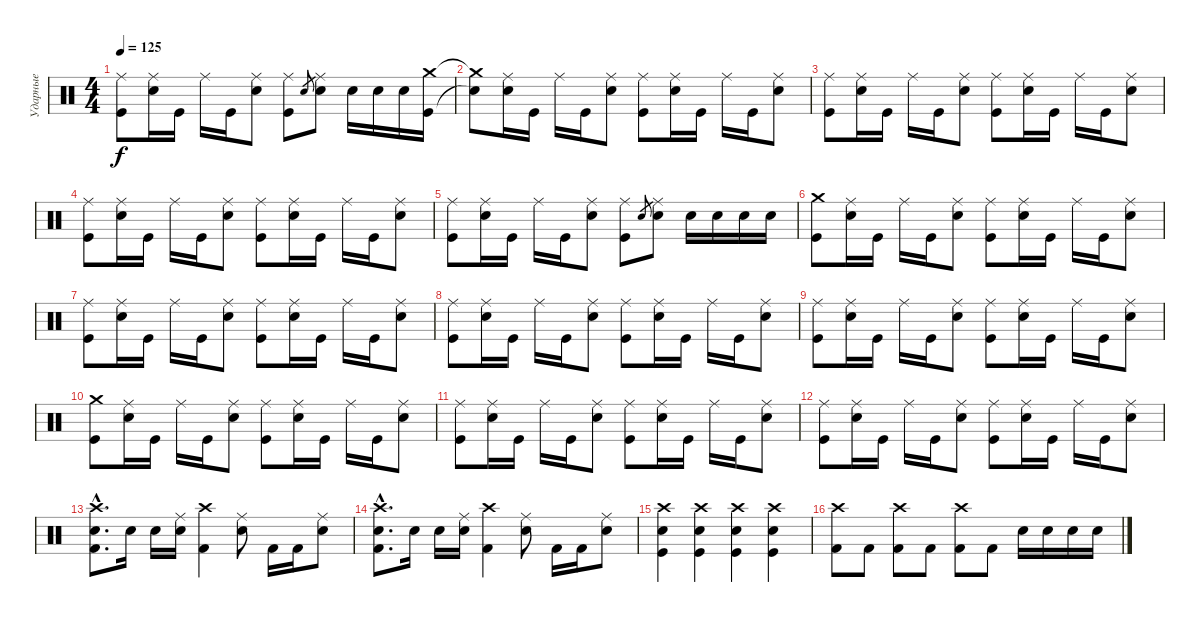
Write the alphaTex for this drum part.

\track ("Ударные" "Ударные") {instrument percussion}
\staff {score}
\articulation defaults
\ts (4 4)
\tempo 125
\clef neutral
\ks c
("Ride (middle)" "Kick (hit)").8{dy f} ("Ride (middle)" "Electric Snare (hit)").16 "Kick (hit)".16 "Ride (middle)".16 "Kick (hit)".16 ("Ride (middle)" "Electric Snare (hit)").8 ("Ride (middle)" "Kick (hit)").8 "Electric Snare (hit)".8{gr} ("Ride (middle)" "Electric Snare (hit)").8 "Electric Snare (hit)".16 "Electric Snare (hit)".16 "Electric Snare (hit)".16 ("Crash medium (hit)" "Kick (hit)").16 |
("Crash medium (hit)"{t} "Snare (hit)"{t}).8 ("Ride (middle)" "Electric Snare (hit)").16 "Kick (hit)".16 "Ride (middle)".16 "Kick (hit)".16 ("Ride (middle)" "Electric Snare (hit)").8 ("Ride (middle)" "Kick (hit)").8 ("Ride (middle)" "Electric Snare (hit)").16 "Kick (hit)".16 "Ride (middle)".16 "Kick (hit)".16 ("Ride (middle)" "Electric Snare (hit)").8 |
("Ride (middle)" "Kick (hit)").8 ("Ride (middle)" "Electric Snare (hit)").16 "Kick (hit)".16 "Ride (middle)".16 "Kick (hit)".16 ("Ride (middle)" "Electric Snare (hit)").8 ("Ride (middle)" "Kick (hit)").8 ("Ride (middle)" "Electric Snare (hit)").16 "Kick (hit)".16 "Ride (middle)".16 "Kick (hit)".16 ("Ride (middle)" "Electric Snare (hit)").8 |
("Ride (middle)" "Kick (hit)").8 ("Ride (middle)" "Electric Snare (hit)").16 "Kick (hit)".16 "Ride (middle)".16 "Kick (hit)".16 ("Ride (middle)" "Electric Snare (hit)").8 ("Ride (middle)" "Kick (hit)").8 ("Ride (middle)" "Electric Snare (hit)").16 "Kick (hit)".16 "Ride (middle)".16 "Kick (hit)".16 ("Ride (middle)" "Electric Snare (hit)").8 |
("Ride (middle)" "Kick (hit)").8 ("Ride (middle)" "Electric Snare (hit)").16 "Kick (hit)".16 "Ride (middle)".16 "Kick (hit)".16 ("Ride (middle)" "Electric Snare (hit)").8 ("Ride (middle)" "Kick (hit)").8 "Electric Snare (hit)".8{gr} ("Ride (middle)" "Electric Snare (hit)").8 "Electric Snare (hit)".16 "Electric Snare (hit)".16 "Electric Snare (hit)".16 "Electric Snare (hit)".16 |
("Crash medium (hit)" "Kick (hit)").8 ("Ride (middle)" "Electric Snare (hit)").16 "Kick (hit)".16 "Ride (middle)".16 "Kick (hit)".16 ("Ride (middle)" "Electric Snare (hit)").8 ("Ride (middle)" "Kick (hit)").8 ("Ride (middle)" "Electric Snare (hit)").16 "Kick (hit)".16 "Ride (middle)".16 "Kick (hit)".16 ("Ride (middle)" "Electric Snare (hit)").8 |
("Ride (middle)" "Kick (hit)").8 ("Ride (middle)" "Electric Snare (hit)").16 "Kick (hit)".16 "Ride (middle)".16 "Kick (hit)".16 ("Ride (middle)" "Electric Snare (hit)").8 ("Ride (middle)" "Kick (hit)").8 ("Ride (middle)" "Electric Snare (hit)").16 "Kick (hit)".16 "Ride (middle)".16 "Kick (hit)".16 ("Ride (middle)" "Electric Snare (hit)").8 |
("Ride (middle)" "Kick (hit)").8 ("Ride (middle)" "Electric Snare (hit)").16 "Kick (hit)".16 "Ride (middle)".16 "Kick (hit)".16 ("Ride (middle)" "Electric Snare (hit)").8 ("Ride (middle)" "Kick (hit)").8 ("Ride (middle)" "Electric Snare (hit)").16 "Kick (hit)".16 "Ride (middle)".16 "Kick (hit)".16 ("Ride (middle)" "Electric Snare (hit)").8 |
("Ride (middle)" "Kick (hit)").8 ("Ride (middle)" "Electric Snare (hit)").16 "Kick (hit)".16 "Ride (middle)".16 "Kick (hit)".16 ("Ride (middle)" "Electric Snare (hit)").8 ("Ride (middle)" "Kick (hit)").8 ("Ride (middle)" "Electric Snare (hit)").16 "Kick (hit)".16 "Ride (middle)".16 "Kick (hit)".16 ("Ride (middle)" "Electric Snare (hit)").8 |
("Crash medium (hit)" "Kick (hit)").8 ("Ride (middle)" "Electric Snare (hit)").16 "Kick (hit)".16 "Ride (middle)".16 "Kick (hit)".16 ("Ride (middle)" "Electric Snare (hit)").8 ("Ride (middle)" "Kick (hit)").8 ("Ride (middle)" "Electric Snare (hit)").16 "Kick (hit)".16 "Ride (middle)".16 "Kick (hit)".16 ("Ride (middle)" "Electric Snare (hit)").8 |
("Ride (middle)" "Kick (hit)").8 ("Ride (middle)" "Electric Snare (hit)").16 "Kick (hit)".16 "Ride (middle)".16 "Kick (hit)".16 ("Ride (middle)" "Electric Snare (hit)").8 ("Ride (middle)" "Kick (hit)").8 ("Ride (middle)" "Electric Snare (hit)").16 "Kick (hit)".16 "Ride (middle)".16 "Kick (hit)".16 ("Ride (middle)" "Electric Snare (hit)").8 |
("Ride (middle)" "Kick (hit)").8 ("Ride (middle)" "Electric Snare (hit)").16 "Kick (hit)".16 "Ride (middle)".16 "Kick (hit)".16 ("Ride (middle)" "Electric Snare (hit)").8 ("Ride (middle)" "Kick (hit)").8 ("Ride (middle)" "Electric Snare (hit)").16 "Kick (hit)".16 "Ride (middle)".16 "Kick (hit)".16 ("Ride (middle)" "Electric Snare (hit)").8 |
("Electric Snare (hit)"{hac} "Kick (hit) 2"{hac} "Crash high (hit)"{hac}).8{d} "Electric Snare (hit)".16 "Electric Snare (hit)".16 ("Electric Snare (hit)" "Ride (middle)").16 ("Kick (hit) 2" "Crash high (hit)").4 ("Electric Snare (hit)" "Ride (middle)").8 "Kick (hit) 2".16 "Kick (hit) 2".16 ("Electric Snare (hit)" "Ride (middle)").8 |
("Electric Snare (hit)"{hac} "Kick (hit) 2"{hac} "Crash high (hit)"{hac}).8{d} "Electric Snare (hit)".16 "Electric Snare (hit)".16 ("Electric Snare (hit)" "Ride (middle)").16 ("Kick (hit) 2" "Crash high (hit)").4 ("Electric Snare (hit)" "Ride (middle)").8 "Kick (hit) 2".16 "Kick (hit) 2".16 ("Electric Snare (hit)" "Ride (middle)").8 |
("Crash high (hit)" "Kick (hit)" "Electric Snare (hit)").4 ("Crash high (hit)" "Kick (hit)" "Electric Snare (hit)").4 ("Crash high (hit)" "Kick (hit)" "Electric Snare (hit)").4 ("Crash high (hit)" "Kick (hit)" "Electric Snare (hit)").4 |
("Kick (hit) 2" "Crash high (hit)").8 "Kick (hit) 2".8 ("Kick (hit) 2" "Crash high (hit)").8 "Kick (hit) 2".8 ("Kick (hit) 2" "Crash high (hit)").8 "Kick (hit) 2".8 "Electric Snare (hit)".16 "Electric Snare (hit)".16 "Electric Snare (hit)".16 "Electric Snare (hit)".16
